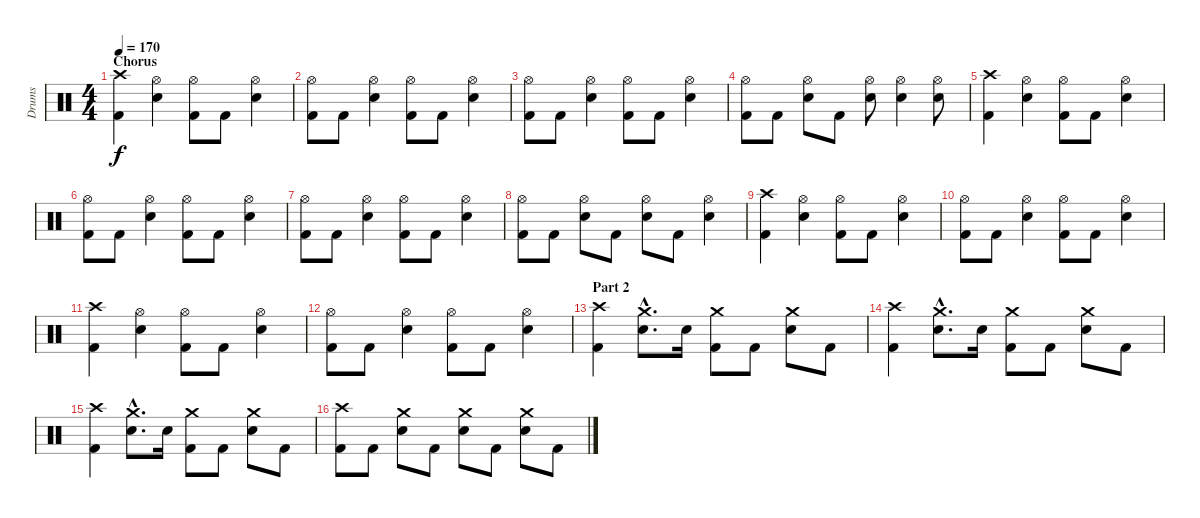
\track ("Drums" "Drums") {instrument percussion}
\staff {score}
\articulation defaults
\ts (4 4)
\section ("" "Chorus")
\tempo 170
\clef neutral
\ks c
("Crash high (hit)" "Kick (hit) 2").4{dy f} ("Hi-Hat (open)" "Electric Snare (hit)").4 ("Hi-Hat (open)" "Kick (hit) 2").8 "Kick (hit) 2".8 ("Hi-Hat (open)" "Electric Snare (hit)").4 |
("Hi-Hat (open)" "Kick (hit) 2").8 "Kick (hit) 2".8 ("Hi-Hat (open)" "Electric Snare (hit)").4 ("Hi-Hat (open)" "Kick (hit) 2").8 "Kick (hit) 2".8 ("Hi-Hat (open)" "Electric Snare (hit)").4 |
("Hi-Hat (open)" "Kick (hit) 2").8 "Kick (hit) 2".8 ("Hi-Hat (open)" "Electric Snare (hit)").4 ("Hi-Hat (open)" "Kick (hit) 2").8 "Kick (hit) 2".8 ("Hi-Hat (open)" "Electric Snare (hit)").4 |
("Hi-Hat (open)" "Kick (hit) 2").8 "Kick (hit) 2".8 ("Hi-Hat (open)" "Electric Snare (hit)").8 "Kick (hit) 2".8 ("Hi-Hat (open)" "Electric Snare (hit)").8 ("Hi-Hat (open)" "Electric Snare (hit)").4 ("Hi-Hat (open)" "Electric Snare (hit)").8 |
("Crash high (hit)" "Kick (hit) 2").4 ("Hi-Hat (open)" "Electric Snare (hit)").4 ("Hi-Hat (open)" "Kick (hit) 2").8 "Kick (hit) 2".8 ("Hi-Hat (open)" "Electric Snare (hit)").4 |
("Hi-Hat (open)" "Kick (hit) 2").8 "Kick (hit) 2".8 ("Hi-Hat (open)" "Electric Snare (hit)").4 ("Hi-Hat (open)" "Kick (hit) 2").8 "Kick (hit) 2".8 ("Hi-Hat (open)" "Electric Snare (hit)").4 |
("Hi-Hat (open)" "Kick (hit) 2").8 "Kick (hit) 2".8 ("Hi-Hat (open)" "Electric Snare (hit)").4 ("Hi-Hat (open)" "Kick (hit) 2").8 "Kick (hit) 2".8 ("Hi-Hat (open)" "Electric Snare (hit)").4 |
("Hi-Hat (open)" "Kick (hit) 2").8 "Kick (hit) 2".8 ("Hi-Hat (open)" "Electric Snare (hit)").8 "Kick (hit) 2".8 ("Hi-Hat (open)" "Electric Snare (hit)").8 "Kick (hit) 2".8 ("Hi-Hat (open)" "Electric Snare (hit)").4 |
("Crash high (hit)" "Kick (hit) 2").4 ("Hi-Hat (open)" "Electric Snare (hit)").4 ("Hi-Hat (open)" "Kick (hit) 2").8 "Kick (hit) 2".8 ("Hi-Hat (open)" "Electric Snare (hit)").4 |
("Hi-Hat (open)" "Kick (hit) 2").8 "Kick (hit) 2".8 ("Hi-Hat (open)" "Electric Snare (hit)").4 ("Hi-Hat (open)" "Kick (hit) 2").8 "Kick (hit) 2".8 ("Hi-Hat (open)" "Electric Snare (hit)").4 |
("Crash high (hit)" "Kick (hit) 2").4 ("Hi-Hat (open)" "Electric Snare (hit)").4 ("Hi-Hat (open)" "Kick (hit) 2").8 "Kick (hit) 2".8 ("Hi-Hat (open)" "Electric Snare (hit)").4 |
\section ("" "")
("Hi-Hat (open)" "Kick (hit) 2").8 "Kick (hit) 2".8 ("Hi-Hat (open)" "Electric Snare (hit)").4 ("Hi-Hat (open)" "Kick (hit) 2").8 "Kick (hit) 2".8 ("Hi-Hat (open)" "Electric Snare (hit)").4 |
\section ("" "Part 2")
("Crash high (hit)" "Kick (hit) 2").4 ("Crash medium (hit)"{hac} "Electric Snare (hit)"{hac}).8{d} "Electric Snare (hit)".16 ("Crash medium (hit)" "Kick (hit) 2").8 "Kick (hit) 2".8 ("Crash medium (hit)" "Electric Snare (hit)").8 "Kick (hit) 2".8 |
("Crash high (hit)" "Kick (hit) 2").4 ("Crash medium (hit)"{hac} "Electric Snare (hit)"{hac}).8{d} "Electric Snare (hit)".16 ("Crash medium (hit)" "Kick (hit) 2").8 "Kick (hit) 2".8 ("Crash medium (hit)" "Electric Snare (hit)").8 "Kick (hit) 2".8 |
("Crash high (hit)" "Kick (hit) 2").4 ("Crash medium (hit)"{hac} "Electric Snare (hit)"{hac}).8{d} "Electric Snare (hit)".16 ("Crash medium (hit)" "Kick (hit) 2").8 "Kick (hit) 2".8 ("Crash medium (hit)" "Electric Snare (hit)").8 "Kick (hit) 2".8 |
("Crash high (hit)" "Kick (hit) 2").8 "Kick (hit) 2".8 ("Crash medium (hit)" "Electric Snare (hit)").8 "Kick (hit) 2".8 ("Crash medium (hit)" "Electric Snare (hit)").8 "Kick (hit) 2".8 ("Crash medium (hit)" "Electric Snare (hit)").8 "Kick (hit) 2".8
